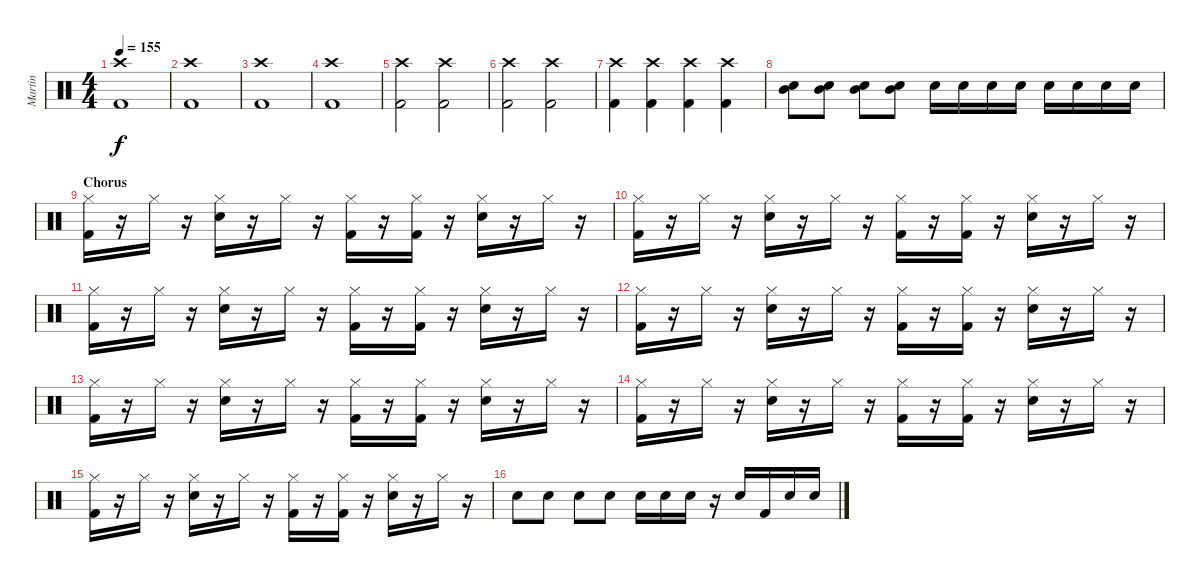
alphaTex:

\track ("Martin" "Martin") {instrument percussion}
\staff {score}
\articulation defaults
\ts (4 4)
\tempo 155
\clef neutral
\ks c
("Kick (hit) 2" "Crash high (hit)").1{dy f} |
("Kick (hit) 2" "Crash high (hit)").1 |
("Kick (hit) 2" "Crash high (hit)").1 |
("Kick (hit) 2" "Crash high (hit)").1 |
("Kick (hit) 2" "Crash high (hit)").2 ("Kick (hit) 2" "Crash high (hit)").2 |
("Kick (hit) 2" "Crash high (hit)").2 ("Kick (hit) 2" "Crash high (hit)").2 |
("Kick (hit) 2" "Crash high (hit)").4 ("Kick (hit) 2" "Crash high (hit)").4 ("Kick (hit) 2" "Crash high (hit)").4 ("Kick (hit) 2" "Crash high (hit)").4 |
("Electric Snare (hit)" "Mid Tom (hit)").8 ("Electric Snare (hit)" "Mid Tom (hit)").8 ("Electric Snare (hit)" "Mid Tom (hit)").8 ("Electric Snare (hit)" "Mid Tom (hit)").8 "Electric Snare (hit)".16 "Electric Snare (hit)".16 "Electric Snare (hit)".16 "Electric Snare (hit)".16 "Electric Snare (hit)".16 "Electric Snare (hit)".16 "Electric Snare (hit)".16 "Electric Snare (hit)".16 |
\section ("" "Chorus")
("Kick (hit) 2" "Hi-Hat (closed)").16 r.16 "Hi-Hat (closed)".16 r.16 ("Electric Snare (hit)" "Hi-Hat (closed)").16 r.16 "Hi-Hat (closed)".16 r.16 ("Kick (hit) 2" "Hi-Hat (closed)").16 r.16 ("Kick (hit) 2" "Hi-Hat (closed)").16 r.16 ("Electric Snare (hit)" "Hi-Hat (closed)").16 r.16 "Hi-Hat (closed)".16 r.16 |
("Kick (hit) 2" "Hi-Hat (closed)").16 r.16 "Hi-Hat (closed)".16 r.16 ("Electric Snare (hit)" "Hi-Hat (closed)").16 r.16 "Hi-Hat (closed)".16 r.16 ("Kick (hit) 2" "Hi-Hat (closed)").16 r.16 ("Kick (hit) 2" "Hi-Hat (closed)").16 r.16 ("Electric Snare (hit)" "Hi-Hat (closed)").16 r.16 "Hi-Hat (closed)".16 r.16 |
("Kick (hit) 2" "Hi-Hat (closed)").16 r.16 "Hi-Hat (closed)".16 r.16 ("Electric Snare (hit)" "Hi-Hat (closed)").16 r.16 "Hi-Hat (closed)".16 r.16 ("Kick (hit) 2" "Hi-Hat (closed)").16 r.16 ("Kick (hit) 2" "Hi-Hat (closed)").16 r.16 ("Electric Snare (hit)" "Hi-Hat (closed)").16 r.16 "Hi-Hat (closed)".16 r.16 |
("Kick (hit) 2" "Hi-Hat (closed)").16 r.16 "Hi-Hat (closed)".16 r.16 ("Electric Snare (hit)" "Hi-Hat (closed)").16 r.16 "Hi-Hat (closed)".16 r.16 ("Kick (hit) 2" "Hi-Hat (closed)").16 r.16 ("Kick (hit) 2" "Hi-Hat (closed)").16 r.16 ("Electric Snare (hit)" "Hi-Hat (closed)").16 r.16 "Hi-Hat (closed)".16 r.16 |
("Kick (hit) 2" "Hi-Hat (closed)").16 r.16 "Hi-Hat (closed)".16 r.16 ("Electric Snare (hit)" "Hi-Hat (closed)").16 r.16 "Hi-Hat (closed)".16 r.16 ("Kick (hit) 2" "Hi-Hat (closed)").16 r.16 ("Kick (hit) 2" "Hi-Hat (closed)").16 r.16 ("Electric Snare (hit)" "Hi-Hat (closed)").16 r.16 "Hi-Hat (closed)".16 r.16 |
("Kick (hit) 2" "Hi-Hat (closed)").16 r.16 "Hi-Hat (closed)".16 r.16 ("Electric Snare (hit)" "Hi-Hat (closed)").16 r.16 "Hi-Hat (closed)".16 r.16 ("Kick (hit) 2" "Hi-Hat (closed)").16 r.16 ("Kick (hit) 2" "Hi-Hat (closed)").16 r.16 ("Electric Snare (hit)" "Hi-Hat (closed)").16 r.16 "Hi-Hat (closed)".16 r.16 |
("Kick (hit) 2" "Hi-Hat (closed)").16 r.16 "Hi-Hat (closed)".16 r.16 ("Electric Snare (hit)" "Hi-Hat (closed)").16 r.16 "Hi-Hat (closed)".16 r.16 ("Kick (hit) 2" "Hi-Hat (closed)").16 r.16 ("Kick (hit) 2" "Hi-Hat (closed)").16 r.16 ("Electric Snare (hit)" "Hi-Hat (closed)").16 r.16 "Hi-Hat (closed)".16 r.16 |
"Electric Snare (hit)".8 "Electric Snare (hit)".8 "Electric Snare (hit)".8 "Electric Snare (hit)".8 "Electric Snare (hit)".16 "Electric Snare (hit)".16 "Electric Snare (hit)".16 r.16 "Electric Snare (hit)".16 "Kick (hit) 2".16 "Electric Snare (hit)".16 "Electric Snare (hit)".16
